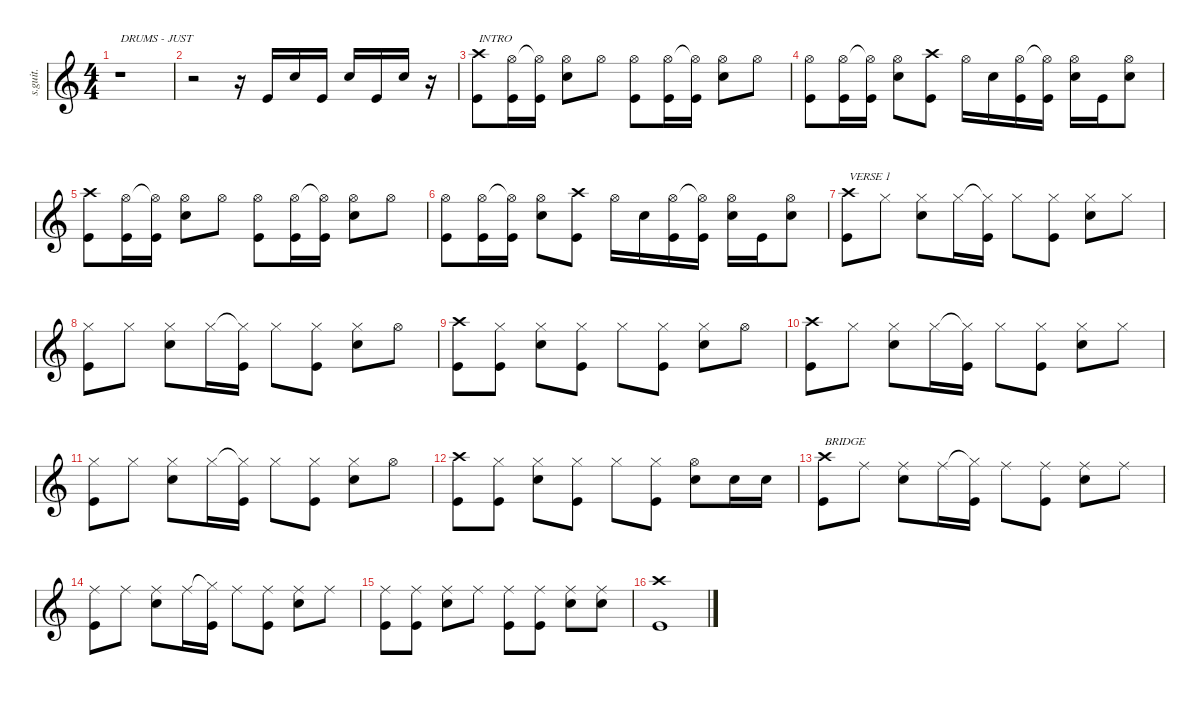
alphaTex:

\defaultSystemsLayout 4
\hideDynamics
\bracketExtendMode nobrackets
\track ("Phil Selway" "s.guit.") {instrument percussion}
\staff {score}
\articulation defaults
\ts (4 4)
\beaming (8 2 2 2 2)
\tempo (88 hide)
\clef g2
\ks c
r.1{txt "DRUMS - JUST" dy fff} |
r.2 r.16 "Kick (hit)".16{lyrics (0 "") lyrics (1 "") lyrics (2 "") lyrics (3 "") lyrics (4 "")} "Snare (hit) 2".16{lyrics (0 "") lyrics (1 "") lyrics (2 "") lyrics (3 "") lyrics (4 "") dy f} "Kick (hit)".16{lyrics (0 "") lyrics (1 "") lyrics (2 "") lyrics (3 "") lyrics (4 "") dy fff} "Snare (hit) 2".16{lyrics (0 "") lyrics (1 "") lyrics (2 "") lyrics (3 "") lyrics (4 "") dy f} "Kick (hit)".16{lyrics (0 "") lyrics (1 "") lyrics (2 "") lyrics (3 "") lyrics (4 "") dy fff} "Snare (hit) 2".16{lyrics (0 "") lyrics (1 "") lyrics (2 "") lyrics (3 "") lyrics (4 "") dy f} r.16 |
("Crash high (hit)" "Kick (hit)").8{txt "INTRO" lyrics (0 "") lyrics (1 "") lyrics (2 "") lyrics (3 "") lyrics (4 "")} ("Hi-Hat (open)" "Kick (hit)").16{lyrics (0 "") lyrics (1 "") lyrics (2 "") lyrics (3 "") lyrics (4 "")} ("Hi-Hat (open)"{t} "Kick (hit)").16{lyrics (0 "") lyrics (1 "") lyrics (2 "") lyrics (3 "") lyrics (4 "")} ("Hi-Hat (open)" "Snare (hit) 2").8{lyrics (0 "") lyrics (1 "") lyrics (2 "") lyrics (3 "") lyrics (4 "")} "Hi-Hat (open)".8{lyrics (0 "") lyrics (1 "") lyrics (2 "") lyrics (3 "") lyrics (4 "")} ("Hi-Hat (open)" "Kick (hit)").8{lyrics (0 "") lyrics (1 "") lyrics (2 "") lyrics (3 "") lyrics (4 "")} ("Hi-Hat (open)" "Kick (hit)").16{lyrics (0 "") lyrics (1 "") lyrics (2 "") lyrics (3 "") lyrics (4 "")} ("Hi-Hat (open)"{t} "Kick (hit)").16{lyrics (0 "") lyrics (1 "") lyrics (2 "") lyrics (3 "") lyrics (4 "")} ("Hi-Hat (open)" "Snare (hit) 2").8{lyrics (0 "") lyrics (1 "") lyrics (2 "") lyrics (3 "") lyrics (4 "")} "Hi-Hat (open)".8{lyrics (0 "") lyrics (1 "") lyrics (2 "") lyrics (3 "") lyrics (4 "")} |
("Hi-Hat (open)" "Kick (hit)").8{lyrics (0 "") lyrics (1 "") lyrics (2 "") lyrics (3 "") lyrics (4 "")} ("Hi-Hat (open)" "Kick (hit)").16{lyrics (0 "") lyrics (1 "") lyrics (2 "") lyrics (3 "") lyrics (4 "")} ("Hi-Hat (open)"{t} "Kick (hit)").16{lyrics (0 "") lyrics (1 "") lyrics (2 "") lyrics (3 "") lyrics (4 "")} ("Hi-Hat (open)" "Snare (hit) 2").8{lyrics (0 "") lyrics (1 "") lyrics (2 "") lyrics (3 "") lyrics (4 "")} ("Crash high (hit)" "Kick (hit)").8{lyrics (0 "") lyrics (1 "") lyrics (2 "") lyrics (3 "") lyrics (4 "")} "Hi-Hat (open)".16{lyrics (0 "") lyrics (1 "") lyrics (2 "") lyrics (3 "") lyrics (4 "")} "Snare (hit) 2".16{lyrics (0 "") lyrics (1 "") lyrics (2 "") lyrics (3 "") lyrics (4 "")} ("Hi-Hat (open)" "Kick (hit)").16{lyrics (0 "") lyrics (1 "") lyrics (2 "") lyrics (3 "") lyrics (4 "")} ("Hi-Hat (open)"{t} "Kick (hit)").16{lyrics (0 "") lyrics (1 "") lyrics (2 "") lyrics (3 "") lyrics (4 "")} ("Hi-Hat (open)" "Snare (hit) 2").16{lyrics (0 "") lyrics (1 "") lyrics (2 "") lyrics (3 "") lyrics (4 "")} "Kick (hit)".16{lyrics (0 "") lyrics (1 "") lyrics (2 "") lyrics (3 "") lyrics (4 "") dy fff} ("Hi-Hat (open)" "Snare (hit) 2").8{lyrics (0 "") lyrics (1 "") lyrics (2 "") lyrics (3 "") lyrics (4 "") dy f} |
("Crash high (hit)" "Kick (hit)").8{lyrics (0 "") lyrics (1 "") lyrics (2 "") lyrics (3 "") lyrics (4 "")} ("Hi-Hat (open)" "Kick (hit)").16{lyrics (0 "") lyrics (1 "") lyrics (2 "") lyrics (3 "") lyrics (4 "")} ("Hi-Hat (open)"{t} "Kick (hit)").16{lyrics (0 "") lyrics (1 "") lyrics (2 "") lyrics (3 "") lyrics (4 "")} ("Hi-Hat (open)" "Snare (hit) 2").8{lyrics (0 "") lyrics (1 "") lyrics (2 "") lyrics (3 "") lyrics (4 "")} "Hi-Hat (open)".8{lyrics (0 "") lyrics (1 "") lyrics (2 "") lyrics (3 "") lyrics (4 "")} ("Hi-Hat (open)" "Kick (hit)").8{lyrics (0 "") lyrics (1 "") lyrics (2 "") lyrics (3 "") lyrics (4 "")} ("Hi-Hat (open)" "Kick (hit)").16{lyrics (0 "") lyrics (1 "") lyrics (2 "") lyrics (3 "") lyrics (4 "")} ("Hi-Hat (open)"{t} "Kick (hit)").16{lyrics (0 "") lyrics (1 "") lyrics (2 "") lyrics (3 "") lyrics (4 "")} ("Hi-Hat (open)" "Snare (hit) 2").8{lyrics (0 "") lyrics (1 "") lyrics (2 "") lyrics (3 "") lyrics (4 "")} "Hi-Hat (open)".8{lyrics (0 "") lyrics (1 "") lyrics (2 "") lyrics (3 "") lyrics (4 "")} |
("Hi-Hat (open)" "Kick (hit)").8{lyrics (0 "") lyrics (1 "") lyrics (2 "") lyrics (3 "") lyrics (4 "")} ("Hi-Hat (open)" "Kick (hit)").16{lyrics (0 "") lyrics (1 "") lyrics (2 "") lyrics (3 "") lyrics (4 "")} ("Hi-Hat (open)"{t} "Kick (hit)").16{lyrics (0 "") lyrics (1 "") lyrics (2 "") lyrics (3 "") lyrics (4 "")} ("Hi-Hat (open)" "Snare (hit) 2").8{lyrics (0 "") lyrics (1 "") lyrics (2 "") lyrics (3 "") lyrics (4 "")} ("Crash high (hit)" "Kick (hit)").8{lyrics (0 "") lyrics (1 "") lyrics (2 "") lyrics (3 "") lyrics (4 "")} "Hi-Hat (open)".16{lyrics (0 "") lyrics (1 "") lyrics (2 "") lyrics (3 "") lyrics (4 "")} "Snare (hit) 2".16{lyrics (0 "") lyrics (1 "") lyrics (2 "") lyrics (3 "") lyrics (4 "")} ("Hi-Hat (open)" "Kick (hit)").16{lyrics (0 "") lyrics (1 "") lyrics (2 "") lyrics (3 "") lyrics (4 "")} ("Hi-Hat (open)"{t} "Kick (hit)").16{lyrics (0 "") lyrics (1 "") lyrics (2 "") lyrics (3 "") lyrics (4 "")} ("Hi-Hat (open)" "Snare (hit) 2").16{lyrics (0 "") lyrics (1 "") lyrics (2 "") lyrics (3 "") lyrics (4 "")} "Kick (hit)".16{lyrics (0 "") lyrics (1 "") lyrics (2 "") lyrics (3 "") lyrics (4 "") dy fff} ("Hi-Hat (open)" "Snare (hit) 2").8{lyrics (0 "") lyrics (1 "") lyrics (2 "") lyrics (3 "") lyrics (4 "") dy f} |
("Crash high (hit)" "Kick (hit)").8{txt "VERSE 1" lyrics (0 "") lyrics (1 "") lyrics (2 "") lyrics (3 "") lyrics (4 "")} "Hi-Hat (closed)".8{lyrics (0 "") lyrics (1 "") lyrics (2 "") lyrics (3 "") lyrics (4 "")} ("Hi-Hat (closed)" "Snare (hit) 2").8{lyrics (0 "") lyrics (1 "") lyrics (2 "") lyrics (3 "") lyrics (4 "")} "Hi-Hat (closed)".16{lyrics (0 "") lyrics (1 "") lyrics (2 "") lyrics (3 "") lyrics (4 "")} ("Hi-Hat (closed)"{t} "Kick (hit)").16{lyrics (0 "") lyrics (1 "") lyrics (2 "") lyrics (3 "") lyrics (4 "")} "Hi-Hat (closed)".8{lyrics (0 "") lyrics (1 "") lyrics (2 "") lyrics (3 "") lyrics (4 "")} ("Hi-Hat (closed)" "Kick (hit)").8{lyrics (0 "") lyrics (1 "") lyrics (2 "") lyrics (3 "") lyrics (4 "")} ("Hi-Hat (closed)" "Snare (hit) 2").8{lyrics (0 "") lyrics (1 "") lyrics (2 "") lyrics (3 "") lyrics (4 "")} "Hi-Hat (closed)".8{lyrics (0 "") lyrics (1 "") lyrics (2 "") lyrics (3 "") lyrics (4 "")} |
("Hi-Hat (closed)" "Kick (hit)").8{lyrics (0 "") lyrics (1 "") lyrics (2 "") lyrics (3 "") lyrics (4 "")} "Hi-Hat (closed)".8{lyrics (0 "") lyrics (1 "") lyrics (2 "") lyrics (3 "") lyrics (4 "")} ("Hi-Hat (closed)" "Snare (hit) 2").8{lyrics (0 "") lyrics (1 "") lyrics (2 "") lyrics (3 "") lyrics (4 "")} "Hi-Hat (closed)".16{lyrics (0 "") lyrics (1 "") lyrics (2 "") lyrics (3 "") lyrics (4 "")} ("Hi-Hat (closed)"{t} "Kick (hit)").16{lyrics (0 "") lyrics (1 "") lyrics (2 "") lyrics (3 "") lyrics (4 "")} "Hi-Hat (closed)".8{lyrics (0 "") lyrics (1 "") lyrics (2 "") lyrics (3 "") lyrics (4 "")} ("Hi-Hat (closed)" "Kick (hit)").8{lyrics (0 "") lyrics (1 "") lyrics (2 "") lyrics (3 "") lyrics (4 "")} ("Hi-Hat (closed)" "Snare (hit) 2").8{lyrics (0 "") lyrics (1 "") lyrics (2 "") lyrics (3 "") lyrics (4 "")} "Hi-Hat (open)".8{lyrics (0 "") lyrics (1 "") lyrics (2 "") lyrics (3 "") lyrics (4 "")} |
("Crash high (hit)" "Kick (hit)").8{lyrics (0 "") lyrics (1 "") lyrics (2 "") lyrics (3 "") lyrics (4 "")} ("Hi-Hat (closed)" "Kick (hit)").8{lyrics (0 "") lyrics (1 "") lyrics (2 "") lyrics (3 "") lyrics (4 "")} ("Hi-Hat (closed)" "Snare (hit) 2").8{lyrics (0 "") lyrics (1 "") lyrics (2 "") lyrics (3 "") lyrics (4 "")} ("Hi-Hat (closed)" "Kick (hit)").8{lyrics (0 "") lyrics (1 "") lyrics (2 "") lyrics (3 "") lyrics (4 "")} "Hi-Hat (closed)".8{lyrics (0 "") lyrics (1 "") lyrics (2 "") lyrics (3 "") lyrics (4 "")} ("Hi-Hat (closed)" "Kick (hit)").8{lyrics (0 "") lyrics (1 "") lyrics (2 "") lyrics (3 "") lyrics (4 "")} ("Hi-Hat (closed)" "Snare (hit) 2").8{lyrics (0 "") lyrics (1 "") lyrics (2 "") lyrics (3 "") lyrics (4 "")} "Hi-Hat (open)".8{lyrics (0 "") lyrics (1 "") lyrics (2 "") lyrics (3 "") lyrics (4 "")} |
("Crash high (hit)" "Kick (hit)").8{lyrics (0 "") lyrics (1 "") lyrics (2 "") lyrics (3 "") lyrics (4 "")} "Hi-Hat (closed)".8{lyrics (0 "") lyrics (1 "") lyrics (2 "") lyrics (3 "") lyrics (4 "")} ("Hi-Hat (closed)" "Snare (hit) 2").8{lyrics (0 "") lyrics (1 "") lyrics (2 "") lyrics (3 "") lyrics (4 "")} "Hi-Hat (closed)".16{lyrics (0 "") lyrics (1 "") lyrics (2 "") lyrics (3 "") lyrics (4 "")} ("Hi-Hat (closed)"{t} "Kick (hit)").16{lyrics (0 "") lyrics (1 "") lyrics (2 "") lyrics (3 "") lyrics (4 "")} "Hi-Hat (closed)".8{lyrics (0 "") lyrics (1 "") lyrics (2 "") lyrics (3 "") lyrics (4 "")} ("Hi-Hat (closed)" "Kick (hit)").8{lyrics (0 "") lyrics (1 "") lyrics (2 "") lyrics (3 "") lyrics (4 "")} ("Hi-Hat (closed)" "Snare (hit) 2").8{lyrics (0 "") lyrics (1 "") lyrics (2 "") lyrics (3 "") lyrics (4 "")} "Hi-Hat (closed)".8{lyrics (0 "") lyrics (1 "") lyrics (2 "") lyrics (3 "") lyrics (4 "")} |
("Hi-Hat (closed)" "Kick (hit)").8{lyrics (0 "") lyrics (1 "") lyrics (2 "") lyrics (3 "") lyrics (4 "")} "Hi-Hat (closed)".8{lyrics (0 "") lyrics (1 "") lyrics (2 "") lyrics (3 "") lyrics (4 "")} ("Hi-Hat (closed)" "Snare (hit) 2").8{lyrics (0 "") lyrics (1 "") lyrics (2 "") lyrics (3 "") lyrics (4 "")} "Hi-Hat (closed)".16{lyrics (0 "") lyrics (1 "") lyrics (2 "") lyrics (3 "") lyrics (4 "")} ("Hi-Hat (closed)"{t} "Kick (hit)").16{lyrics (0 "") lyrics (1 "") lyrics (2 "") lyrics (3 "") lyrics (4 "")} "Hi-Hat (closed)".8{lyrics (0 "") lyrics (1 "") lyrics (2 "") lyrics (3 "") lyrics (4 "")} ("Hi-Hat (closed)" "Kick (hit)").8{lyrics (0 "") lyrics (1 "") lyrics (2 "") lyrics (3 "") lyrics (4 "")} ("Hi-Hat (closed)" "Snare (hit) 2").8{lyrics (0 "") lyrics (1 "") lyrics (2 "") lyrics (3 "") lyrics (4 "")} "Hi-Hat (open)".8{lyrics (0 "") lyrics (1 "") lyrics (2 "") lyrics (3 "") lyrics (4 "")} |
("Crash high (hit)" "Kick (hit)").8{lyrics (0 "") lyrics (1 "") lyrics (2 "") lyrics (3 "") lyrics (4 "")} ("Hi-Hat (closed)" "Kick (hit)").8{lyrics (0 "") lyrics (1 "") lyrics (2 "") lyrics (3 "") lyrics (4 "")} ("Hi-Hat (closed)" "Snare (hit) 2").8{lyrics (0 "") lyrics (1 "") lyrics (2 "") lyrics (3 "") lyrics (4 "")} ("Hi-Hat (closed)" "Kick (hit)").8{lyrics (0 "") lyrics (1 "") lyrics (2 "") lyrics (3 "") lyrics (4 "")} "Hi-Hat (closed)".8{lyrics (0 "") lyrics (1 "") lyrics (2 "") lyrics (3 "") lyrics (4 "")} ("Hi-Hat (closed)" "Kick (hit)").8{lyrics (0 "") lyrics (1 "") lyrics (2 "") lyrics (3 "") lyrics (4 "")} ("Hi-Hat (open)" "Snare (hit) 2").8{lyrics (0 "") lyrics (1 "") lyrics (2 "") lyrics (3 "") lyrics (4 "")} "Snare (hit) 2".16{lyrics (0 "") lyrics (1 "") lyrics (2 "") lyrics (3 "") lyrics (4 "")} "Snare (hit) 2".16{lyrics (0 "") lyrics (1 "") lyrics (2 "") lyrics (3 "") lyrics (4 "")} |
("Crash high (hit)" "Kick (hit)").8{txt "BRIDGE" lyrics (0 "") lyrics (1 "") lyrics (2 "") lyrics (3 "") lyrics (4 "")} "Ride (middle)".8{lyrics (0 "") lyrics (1 "") lyrics (2 "") lyrics (3 "") lyrics (4 "")} ("Ride (middle)" "Snare (hit) 2").8{lyrics (0 "") lyrics (1 "") lyrics (2 "") lyrics (3 "") lyrics (4 "")} "Ride (middle)".16{lyrics (0 "") lyrics (1 "") lyrics (2 "") lyrics (3 "") lyrics (4 "")} ("Hi-Hat (closed)"{t} "Kick (hit)").16{lyrics (0 "") lyrics (1 "") lyrics (2 "") lyrics (3 "") lyrics (4 "")} "Ride (middle)".8{lyrics (0 "") lyrics (1 "") lyrics (2 "") lyrics (3 "") lyrics (4 "")} ("Ride (middle)" "Kick (hit)").8{lyrics (0 "") lyrics (1 "") lyrics (2 "") lyrics (3 "") lyrics (4 "")} ("Ride (middle)" "Snare (hit) 2").8{lyrics (0 "") lyrics (1 "") lyrics (2 "") lyrics (3 "") lyrics (4 "")} "Ride (middle)".8{lyrics (0 "") lyrics (1 "") lyrics (2 "") lyrics (3 "") lyrics (4 "")} |
("Ride (middle)" "Kick (hit)").8{lyrics (0 "") lyrics (1 "") lyrics (2 "") lyrics (3 "") lyrics (4 "")} "Ride (middle)".8{lyrics (0 "") lyrics (1 "") lyrics (2 "") lyrics (3 "") lyrics (4 "")} ("Ride (middle)" "Snare (hit) 2").8{lyrics (0 "") lyrics (1 "") lyrics (2 "") lyrics (3 "") lyrics (4 "")} "Ride (middle)".16{lyrics (0 "") lyrics (1 "") lyrics (2 "") lyrics (3 "") lyrics (4 "")} ("Hi-Hat (closed)"{t} "Kick (hit)").16{lyrics (0 "") lyrics (1 "") lyrics (2 "") lyrics (3 "") lyrics (4 "")} "Ride (middle)".8{lyrics (0 "") lyrics (1 "") lyrics (2 "") lyrics (3 "") lyrics (4 "")} ("Ride (middle)" "Kick (hit)").8{lyrics (0 "") lyrics (1 "") lyrics (2 "") lyrics (3 "") lyrics (4 "")} ("Ride (middle)" "Snare (hit) 2").8{lyrics (0 "") lyrics (1 "") lyrics (2 "") lyrics (3 "") lyrics (4 "")} "Ride (middle)".8{lyrics (0 "") lyrics (1 "") lyrics (2 "") lyrics (3 "") lyrics (4 "")} |
("Ride (middle)" "Kick (hit)").8{lyrics (0 "") lyrics (1 "") lyrics (2 "") lyrics (3 "") lyrics (4 "")} ("Ride (middle)" "Kick (hit)").8{lyrics (0 "") lyrics (1 "") lyrics (2 "") lyrics (3 "") lyrics (4 "")} ("Ride (middle)" "Snare (hit) 2").8{lyrics (0 "") lyrics (1 "") lyrics (2 "") lyrics (3 "") lyrics (4 "")} "Ride (middle)".8{lyrics (0 "") lyrics (1 "") lyrics (2 "") lyrics (3 "") lyrics (4 "")} ("Ride (middle)" "Kick (hit)").8{lyrics (0 "") lyrics (1 "") lyrics (2 "") lyrics (3 "") lyrics (4 "")} ("Ride (middle)" "Kick (hit)").8{lyrics (0 "") lyrics (1 "") lyrics (2 "") lyrics (3 "") lyrics (4 "")} ("Ride (middle)" "Snare (hit) 2").8{lyrics (0 "") lyrics (1 "") lyrics (2 "") lyrics (3 "") lyrics (4 "")} ("Ride (middle)" "Snare (hit) 2").8{lyrics (0 "") lyrics (1 "") lyrics (2 "") lyrics (3 "") lyrics (4 "")} |
("Crash high (hit)" "Kick (hit)").1{lyrics (0 "") lyrics (1 "") lyrics (2 "") lyrics (3 "") lyrics (4 "")}
